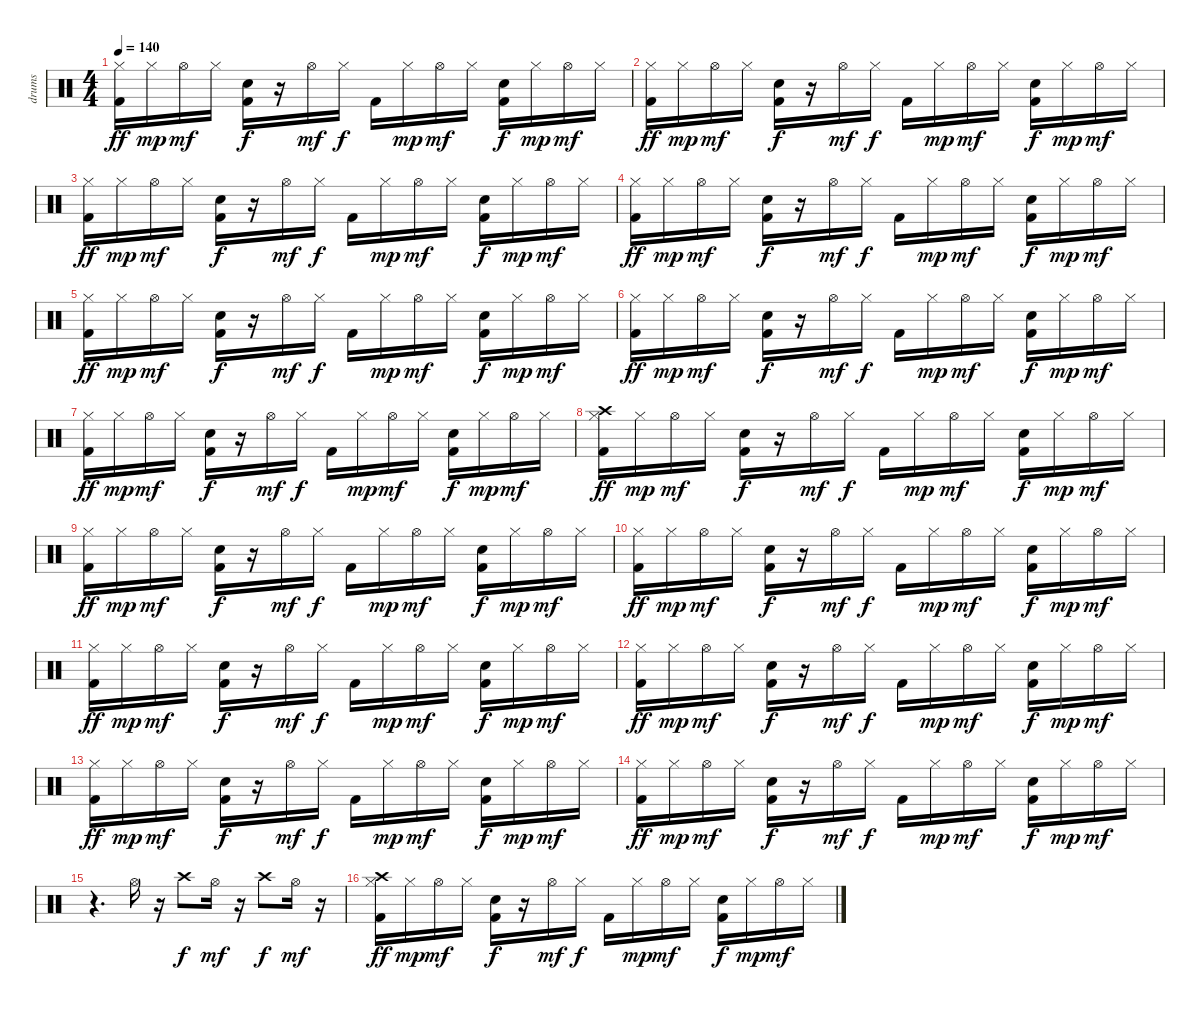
\track ("drums" "drums") {instrument percussion}
\staff {score}
\articulation defaults
\ts (4 4)
\tempo 140
\clef neutral
\ks c
("Kick (hit) 2" "Hi-Hat (closed)").16{dy ff} "Hi-Hat (closed)".16{dy mp} "Hi-Hat (open)".16{dy mf} "Hi-Hat (closed)".16 ("Kick (hit) 2" "Hand Clap (hit)").16{dy f} r.16 "Hi-Hat (open)".16{dy mf} "Hi-Hat (closed)".16{dy f} "Kick (hit) 2".16 "Hi-Hat (closed)".16{dy mp} "Hi-Hat (open)".16{dy mf} "Hi-Hat (closed)".16 ("Kick (hit) 2" "Hand Clap (hit)").16{dy f} "Hi-Hat (closed)".16{dy mp} "Hi-Hat (open)".16{dy mf} "Hi-Hat (closed)".16 |
("Kick (hit) 2" "Hi-Hat (closed)").16{dy ff} "Hi-Hat (closed)".16{dy mp} "Hi-Hat (open)".16{dy mf} "Hi-Hat (closed)".16 ("Kick (hit) 2" "Hand Clap (hit)").16{dy f} r.16 "Hi-Hat (open)".16{dy mf} "Hi-Hat (closed)".16{dy f} "Kick (hit) 2".16 "Hi-Hat (closed)".16{dy mp} "Hi-Hat (open)".16{dy mf} "Hi-Hat (closed)".16 ("Kick (hit) 2" "Hand Clap (hit)").16{dy f} "Hi-Hat (closed)".16{dy mp} "Hi-Hat (open)".16{dy mf} "Hi-Hat (closed)".16 |
("Kick (hit) 2" "Hi-Hat (closed)").16{dy ff} "Hi-Hat (closed)".16{dy mp} "Hi-Hat (open)".16{dy mf} "Hi-Hat (closed)".16 ("Kick (hit) 2" "Hand Clap (hit)").16{dy f} r.16 "Hi-Hat (open)".16{dy mf} "Hi-Hat (closed)".16{dy f} "Kick (hit) 2".16 "Hi-Hat (closed)".16{dy mp} "Hi-Hat (open)".16{dy mf} "Hi-Hat (closed)".16 ("Kick (hit) 2" "Hand Clap (hit)").16{dy f} "Hi-Hat (closed)".16{dy mp} "Hi-Hat (open)".16{dy mf} "Hi-Hat (closed)".16 |
("Kick (hit) 2" "Hi-Hat (closed)").16{dy ff} "Hi-Hat (closed)".16{dy mp} "Hi-Hat (open)".16{dy mf} "Hi-Hat (closed)".16 ("Kick (hit) 2" "Hand Clap (hit)").16{dy f} r.16 "Hi-Hat (open)".16{dy mf} "Hi-Hat (closed)".16{dy f} "Kick (hit) 2".16 "Hi-Hat (closed)".16{dy mp} "Hi-Hat (open)".16{dy mf} "Hi-Hat (closed)".16 ("Kick (hit) 2" "Hand Clap (hit)").16{dy f} "Hi-Hat (closed)".16{dy mp} "Hi-Hat (open)".16{dy mf} "Hi-Hat (closed)".16 |
("Kick (hit) 2" "Hi-Hat (closed)").16{dy ff} "Hi-Hat (closed)".16{dy mp} "Hi-Hat (open)".16{dy mf} "Hi-Hat (closed)".16 ("Kick (hit) 2" "Hand Clap (hit)").16{dy f} r.16 "Hi-Hat (open)".16{dy mf} "Hi-Hat (closed)".16{dy f} "Kick (hit) 2".16 "Hi-Hat (closed)".16{dy mp} "Hi-Hat (open)".16{dy mf} "Hi-Hat (closed)".16 ("Kick (hit) 2" "Hand Clap (hit)").16{dy f} "Hi-Hat (closed)".16{dy mp} "Hi-Hat (open)".16{dy mf} "Hi-Hat (closed)".16 |
("Kick (hit) 2" "Hi-Hat (closed)").16{dy ff} "Hi-Hat (closed)".16{dy mp} "Hi-Hat (open)".16{dy mf} "Hi-Hat (closed)".16 ("Kick (hit) 2" "Hand Clap (hit)").16{dy f} r.16 "Hi-Hat (open)".16{dy mf} "Hi-Hat (closed)".16{dy f} "Kick (hit) 2".16 "Hi-Hat (closed)".16{dy mp} "Hi-Hat (open)".16{dy mf} "Hi-Hat (closed)".16 ("Kick (hit) 2" "Hand Clap (hit)").16{dy f} "Hi-Hat (closed)".16{dy mp} "Hi-Hat (open)".16{dy mf} "Hi-Hat (closed)".16 |
("Kick (hit) 2" "Hi-Hat (closed)").16{dy ff} "Hi-Hat (closed)".16{dy mp} "Hi-Hat (open)".16{dy mf} "Hi-Hat (closed)".16 ("Kick (hit) 2" "Hand Clap (hit)").16{dy f} r.16 "Hi-Hat (open)".16{dy mf} "Hi-Hat (closed)".16{dy f} "Kick (hit) 2".16 "Hi-Hat (closed)".16{dy mp} "Hi-Hat (open)".16{dy mf} "Hi-Hat (closed)".16 ("Kick (hit) 2" "Hand Clap (hit)").16{dy f} "Hi-Hat (closed)".16{dy mp} "Hi-Hat (open)".16{dy mf} "Hi-Hat (closed)".16 |
("Kick (hit) 2" "Crash high (hit)" "Hi-Hat (closed)").16{dy ff} "Hi-Hat (closed)".16{dy mp} "Hi-Hat (open)".16{dy mf} "Hi-Hat (closed)".16 ("Kick (hit) 2" "Hand Clap (hit)").16{dy f} r.16 "Hi-Hat (open)".16{dy mf} "Hi-Hat (closed)".16{dy f} "Kick (hit) 2".16 "Hi-Hat (closed)".16{dy mp} "Hi-Hat (open)".16{dy mf} "Hi-Hat (closed)".16 ("Kick (hit) 2" "Hand Clap (hit)").16{dy f} "Hi-Hat (closed)".16{dy mp} "Hi-Hat (open)".16{dy mf} "Hi-Hat (closed)".16 |
("Kick (hit) 2" "Hi-Hat (closed)").16{dy ff} "Hi-Hat (closed)".16{dy mp} "Hi-Hat (open)".16{dy mf} "Hi-Hat (closed)".16 ("Kick (hit) 2" "Hand Clap (hit)").16{dy f} r.16 "Hi-Hat (open)".16{dy mf} "Hi-Hat (closed)".16{dy f} "Kick (hit) 2".16 "Hi-Hat (closed)".16{dy mp} "Hi-Hat (open)".16{dy mf} "Hi-Hat (closed)".16 ("Kick (hit) 2" "Hand Clap (hit)").16{dy f} "Hi-Hat (closed)".16{dy mp} "Hi-Hat (open)".16{dy mf} "Hi-Hat (closed)".16 |
("Kick (hit) 2" "Hi-Hat (closed)").16{dy ff} "Hi-Hat (closed)".16{dy mp} "Hi-Hat (open)".16{dy mf} "Hi-Hat (closed)".16 ("Kick (hit) 2" "Hand Clap (hit)").16{dy f} r.16 "Hi-Hat (open)".16{dy mf} "Hi-Hat (closed)".16{dy f} "Kick (hit) 2".16 "Hi-Hat (closed)".16{dy mp} "Hi-Hat (open)".16{dy mf} "Hi-Hat (closed)".16 ("Kick (hit) 2" "Hand Clap (hit)").16{dy f} "Hi-Hat (closed)".16{dy mp} "Hi-Hat (open)".16{dy mf} "Hi-Hat (closed)".16 |
("Kick (hit) 2" "Hi-Hat (closed)").16{dy ff} "Hi-Hat (closed)".16{dy mp} "Hi-Hat (open)".16{dy mf} "Hi-Hat (closed)".16 ("Kick (hit) 2" "Hand Clap (hit)").16{dy f} r.16 "Hi-Hat (open)".16{dy mf} "Hi-Hat (closed)".16{dy f} "Kick (hit) 2".16 "Hi-Hat (closed)".16{dy mp} "Hi-Hat (open)".16{dy mf} "Hi-Hat (closed)".16 ("Kick (hit) 2" "Hand Clap (hit)").16{dy f} "Hi-Hat (closed)".16{dy mp} "Hi-Hat (open)".16{dy mf} "Hi-Hat (closed)".16 |
("Kick (hit) 2" "Hi-Hat (closed)").16{dy ff} "Hi-Hat (closed)".16{dy mp} "Hi-Hat (open)".16{dy mf} "Hi-Hat (closed)".16 ("Kick (hit) 2" "Hand Clap (hit)").16{dy f} r.16 "Hi-Hat (open)".16{dy mf} "Hi-Hat (closed)".16{dy f} "Kick (hit) 2".16 "Hi-Hat (closed)".16{dy mp} "Hi-Hat (open)".16{dy mf} "Hi-Hat (closed)".16 ("Kick (hit) 2" "Hand Clap (hit)").16{dy f} "Hi-Hat (closed)".16{dy mp} "Hi-Hat (open)".16{dy mf} "Hi-Hat (closed)".16 |
("Kick (hit) 2" "Hi-Hat (closed)").16{dy ff} "Hi-Hat (closed)".16{dy mp} "Hi-Hat (open)".16{dy mf} "Hi-Hat (closed)".16 ("Kick (hit) 2" "Hand Clap (hit)").16{dy f} r.16 "Hi-Hat (open)".16{dy mf} "Hi-Hat (closed)".16{dy f} "Kick (hit) 2".16 "Hi-Hat (closed)".16{dy mp} "Hi-Hat (open)".16{dy mf} "Hi-Hat (closed)".16 ("Kick (hit) 2" "Hand Clap (hit)").16{dy f} "Hi-Hat (closed)".16{dy mp} "Hi-Hat (open)".16{dy mf} "Hi-Hat (closed)".16 |
("Kick (hit) 2" "Hi-Hat (closed)").16{dy ff} "Hi-Hat (closed)".16{dy mp} "Hi-Hat (open)".16{dy mf} "Hi-Hat (closed)".16 ("Kick (hit) 2" "Hand Clap (hit)").16{dy f} r.16 "Hi-Hat (open)".16{dy mf} "Hi-Hat (closed)".16{dy f} "Kick (hit) 2".16 "Hi-Hat (closed)".16{dy mp} "Hi-Hat (open)".16{dy mf} "Hi-Hat (closed)".16 ("Kick (hit) 2" "Hand Clap (hit)").16{dy f} "Hi-Hat (closed)".16{dy mp} "Hi-Hat (open)".16{dy mf} "Hi-Hat (closed)".16 |
r.4{d} "Hi-Hat (open)".16 r.16 "Crash high (hit)".8{dy f} "Hi-Hat (open)".16{dy mf} r.16 "Crash high (hit)".8{dy f} "Hi-Hat (open)".16{dy mf} r.16 |
("Kick (hit) 2" "Crash high (hit)" "Hi-Hat (closed)").16{dy ff} "Hi-Hat (closed)".16{dy mp} "Hi-Hat (open)".16{dy mf} "Hi-Hat (closed)".16 ("Kick (hit) 2" "Hand Clap (hit)").16{dy f} r.16 "Hi-Hat (open)".16{dy mf} "Hi-Hat (closed)".16{dy f} "Kick (hit) 2".16 "Hi-Hat (closed)".16{dy mp} "Hi-Hat (open)".16{dy mf} "Hi-Hat (closed)".16 ("Kick (hit) 2" "Hand Clap (hit)").16{dy f} "Hi-Hat (closed)".16{dy mp} "Hi-Hat (open)".16{dy mf} "Hi-Hat (closed)".16
